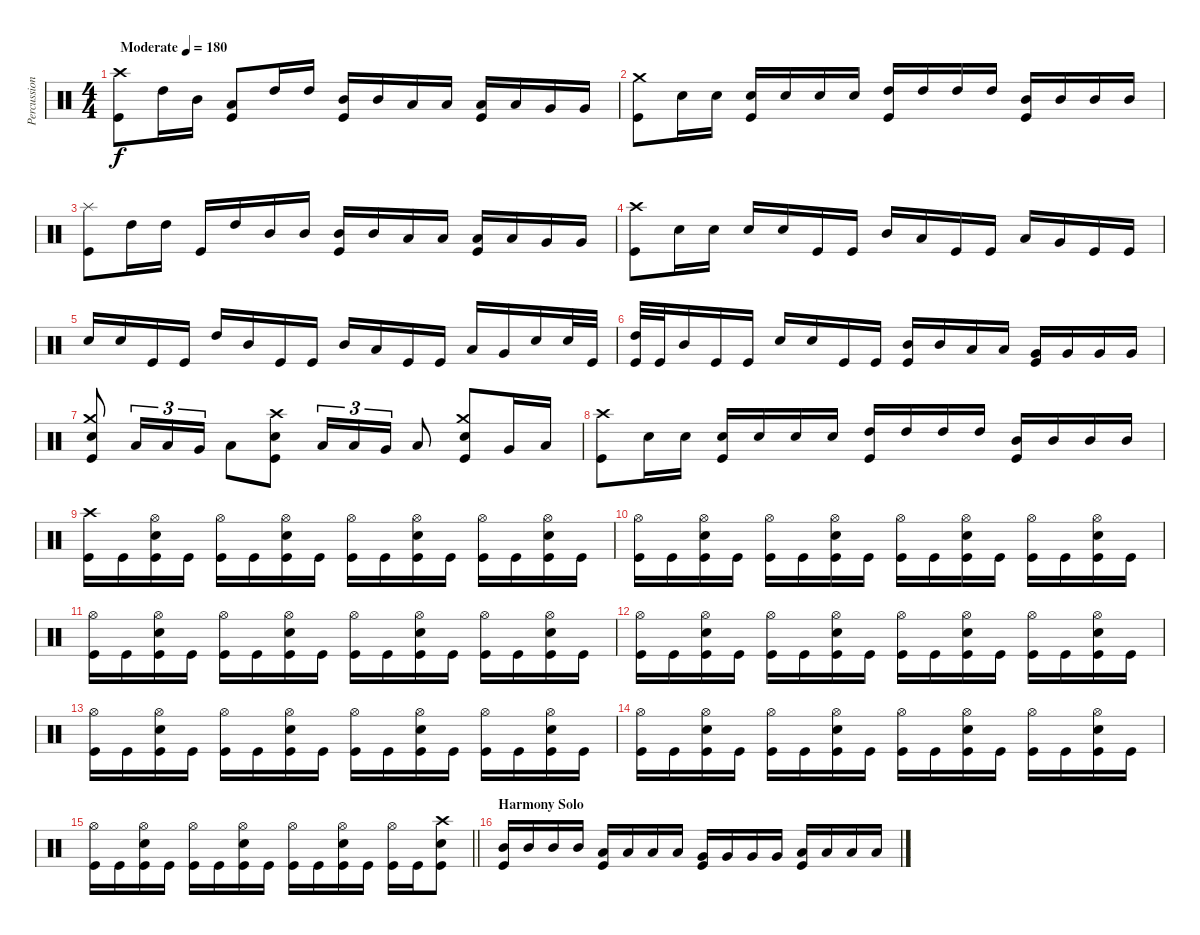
\track ("Percussion" "Percussion") {instrument percussion}
\staff {score}
\articulation defaults
\ts (4 4)
\tempo (180 "Moderate")
\clef neutral
\ks c
("Crash high (hit)" "Kick (hit)").8{dy f} "High Tom (hit)".16 "Mid Tom (hit)".16 ("Low Tom (hit)" "Kick (hit)").8 "High Tom (hit)".16 "High Tom (hit)".16 ("Mid Tom (hit)" "Kick (hit)").16 "Mid Tom (hit)".16 "Low Tom (hit)".16 "Low Tom (hit)".16 ("Low Tom (hit)" "Kick (hit)").16 "Low Tom (hit)".16 "Very Low Tom (hit)".16 "Very Low Tom (hit)".16 |
("Crash medium (hit)" "Kick (hit)").8 "Electric Snare (hit)".16 "Electric Snare (hit)".16 ("Electric Snare (hit)" "Kick (hit)").16 "Electric Snare (hit)".16 "Electric Snare (hit)".16 "Electric Snare (hit)".16 ("High Tom (hit)" "Kick (hit)").16 "High Tom (hit)".16 "High Tom (hit)".16 "High Tom (hit)".16 ("Mid Tom (hit)" "Kick (hit)").16 "Mid Tom (hit)".16 "Mid Tom (hit)".16 "Mid Tom (hit)".16 |
("Splash (hit)" "Kick (hit)").8 "High Tom (hit)".16 "High Tom (hit)".16 "Kick (hit)".16 "High Tom (hit)".16 "Mid Tom (hit)".16 "Mid Tom (hit)".16 ("Mid Tom (hit)" "Kick (hit)").16 "Mid Tom (hit)".16 "Low Tom (hit)".16 "Low Tom (hit)".16 ("Low Tom (hit)" "Kick (hit)").16 "Low Tom (hit)".16 "Very Low Tom (hit)".16 "Very Low Tom (hit)".16 |
("Crash high (hit)" "Kick (hit)").8 "Electric Snare (hit)".16 "Electric Snare (hit)".16 "Electric Snare (hit)".16 "Electric Snare (hit)".16 "Kick (hit)".16 "Kick (hit)".16 "Mid Tom (hit)".16 "Low Tom (hit)".16 "Kick (hit)".16 "Kick (hit)".16 "Low Tom (hit)".16 "Very Low Tom (hit)".16 "Kick (hit)".16 "Kick (hit)".16 |
"Electric Snare (hit)".16 "Electric Snare (hit)".16 "Kick (hit)".16 "Kick (hit)".16 "High Tom (hit)".16 "Mid Tom (hit)".16 "Kick (hit)".16 "Kick (hit)".16 "Mid Tom (hit)".16 "Low Tom (hit)".16 "Kick (hit)".16 "Kick (hit)".16 "Low Tom (hit)".16 "Very Low Tom (hit)".16 "Electric Snare (hit)".16 "Electric Snare (hit)".32 "Kick (hit)".32 |
("High Tom (hit)" "Kick (hit)").32 "Kick (hit)".32 "Mid Tom (hit)".16 "Kick (hit)".16 "Kick (hit)".16 "Electric Snare (hit)".16 "Electric Snare (hit)".16 "Kick (hit)".16 "Kick (hit)".16 ("Mid Tom (hit)" "Kick (hit)").16 "Mid Tom (hit)".16 "Low Tom (hit)".16 "Low Tom (hit)".16 ("Very Low Tom (hit)" "Kick (hit)").16 "Very Low Tom (hit)".16 "Very Low Tom (hit)".16 "Very Low Tom (hit)".16 |
("Crash medium (hit)" "Electric Snare (hit)" "Kick (hit)").8 "Low Tom (hit)".16{tu (3 2)} "Low Tom (hit)".16{tu (3 2)} "Very Low Tom (hit)".16{tu (3 2)} "Low Floor Tom (hit)".8 ("Crash high (hit)" "Electric Snare (hit)" "Kick (hit)").8 "Low Tom (hit)".16{tu (3 2)} "Low Tom (hit)".16{tu (3 2)} "Very Low Tom (hit)".16{tu (3 2)} "Low Floor Tom (hit)".8 ("Crash medium (hit)" "Electric Snare (hit)" "Kick (hit)").8 "Very Low Tom (hit)".16 "Low Floor Tom (hit)".16 |
("Crash high (hit)" "Kick (hit)").8 "Electric Snare (hit)".16 "Electric Snare (hit)".16 ("Electric Snare (hit)" "Kick (hit)").16 "Electric Snare (hit)".16 "Electric Snare (hit)".16 "Electric Snare (hit)".16 ("High Tom (hit)" "Kick (hit)").16 "High Tom (hit)".16 "High Tom (hit)".16 "High Tom (hit)".16 ("Mid Tom (hit)" "Kick (hit)").16 "Mid Tom (hit)".16 "Mid Tom (hit)".16 "Mid Tom (hit)".16 |
("Crash high (hit)" "Kick (hit)").16 "Kick (hit)".16 ("Hi-Hat (open)" "Electric Snare (hit)" "Kick (hit)").16 "Kick (hit)".16 ("Hi-Hat (open)" "Kick (hit)").16 "Kick (hit)".16 ("Hi-Hat (open)" "Electric Snare (hit)" "Kick (hit)").16 "Kick (hit)".16 ("Hi-Hat (open)" "Kick (hit)").16 "Kick (hit)".16 ("Hi-Hat (open)" "Electric Snare (hit)" "Kick (hit)").16 "Kick (hit)".16 ("Hi-Hat (open)" "Kick (hit)").16 "Kick (hit)".16 ("Hi-Hat (open)" "Electric Snare (hit)" "Kick (hit)").16 "Kick (hit)".16 |
("Hi-Hat (open)" "Kick (hit)").16 "Kick (hit)".16 ("Hi-Hat (open)" "Electric Snare (hit)" "Kick (hit)").16 "Kick (hit)".16 ("Hi-Hat (open)" "Kick (hit)").16 "Kick (hit)".16 ("Hi-Hat (open)" "Electric Snare (hit)" "Kick (hit)").16 "Kick (hit)".16 ("Hi-Hat (open)" "Kick (hit)").16 "Kick (hit)".16 ("Hi-Hat (open)" "Electric Snare (hit)" "Kick (hit)").16 "Kick (hit)".16 ("Hi-Hat (open)" "Kick (hit)").16 "Kick (hit)".16 ("Hi-Hat (open)" "Electric Snare (hit)" "Kick (hit)").16 "Kick (hit)".16 |
("Hi-Hat (open)" "Kick (hit)").16 "Kick (hit)".16 ("Hi-Hat (open)" "Electric Snare (hit)" "Kick (hit)").16 "Kick (hit)".16 ("Hi-Hat (open)" "Kick (hit)").16 "Kick (hit)".16 ("Hi-Hat (open)" "Electric Snare (hit)" "Kick (hit)").16 "Kick (hit)".16 ("Hi-Hat (open)" "Kick (hit)").16 "Kick (hit)".16 ("Hi-Hat (open)" "Electric Snare (hit)" "Kick (hit)").16 "Kick (hit)".16 ("Hi-Hat (open)" "Kick (hit)").16 "Kick (hit)".16 ("Hi-Hat (open)" "Electric Snare (hit)" "Kick (hit)").16 "Kick (hit)".16 |
("Hi-Hat (open)" "Kick (hit)").16 "Kick (hit)".16 ("Hi-Hat (open)" "Electric Snare (hit)" "Kick (hit)").16 "Kick (hit)".16 ("Hi-Hat (open)" "Kick (hit)").16 "Kick (hit)".16 ("Hi-Hat (open)" "Electric Snare (hit)" "Kick (hit)").16 "Kick (hit)".16 ("Hi-Hat (open)" "Kick (hit)").16 "Kick (hit)".16 ("Hi-Hat (open)" "Electric Snare (hit)" "Kick (hit)").16 "Kick (hit)".16 ("Hi-Hat (open)" "Kick (hit)").16 "Kick (hit)".16 ("Hi-Hat (open)" "Electric Snare (hit)" "Kick (hit)").16 "Kick (hit)".16 |
("Hi-Hat (open)" "Kick (hit)").16 "Kick (hit)".16 ("Hi-Hat (open)" "Electric Snare (hit)" "Kick (hit)").16 "Kick (hit)".16 ("Hi-Hat (open)" "Kick (hit)").16 "Kick (hit)".16 ("Hi-Hat (open)" "Electric Snare (hit)" "Kick (hit)").16 "Kick (hit)".16 ("Hi-Hat (open)" "Kick (hit)").16 "Kick (hit)".16 ("Hi-Hat (open)" "Electric Snare (hit)" "Kick (hit)").16 "Kick (hit)".16 ("Hi-Hat (open)" "Kick (hit)").16 "Kick (hit)".16 ("Hi-Hat (open)" "Electric Snare (hit)" "Kick (hit)").16 "Kick (hit)".16 |
("Hi-Hat (open)" "Kick (hit)").16 "Kick (hit)".16 ("Hi-Hat (open)" "Electric Snare (hit)" "Kick (hit)").16 "Kick (hit)".16 ("Hi-Hat (open)" "Kick (hit)").16 "Kick (hit)".16 ("Hi-Hat (open)" "Electric Snare (hit)" "Kick (hit)").16 "Kick (hit)".16 ("Hi-Hat (open)" "Kick (hit)").16 "Kick (hit)".16 ("Hi-Hat (open)" "Electric Snare (hit)" "Kick (hit)").16 "Kick (hit)".16 ("Hi-Hat (open)" "Kick (hit)").16 "Kick (hit)".16 ("Hi-Hat (open)" "Electric Snare (hit)" "Kick (hit)").16 "Kick (hit)".16 |
\barLineRight lightlight
("Hi-Hat (open)" "Kick (hit)").16 "Kick (hit)".16 ("Hi-Hat (open)" "Electric Snare (hit)" "Kick (hit)").16 "Kick (hit)".16 ("Hi-Hat (open)" "Kick (hit)").16 "Kick (hit)".16 ("Hi-Hat (open)" "Electric Snare (hit)" "Kick (hit)").16 "Kick (hit)".16 ("Hi-Hat (open)" "Kick (hit)").16 "Kick (hit)".16 ("Hi-Hat (open)" "Electric Snare (hit)" "Kick (hit)").16 "Kick (hit)".16 ("Hi-Hat (open)" "Kick (hit)").16 "Kick (hit)".16 ("Crash high (hit)" "Electric Snare (hit)" "Kick (hit)").8 |
\section ("" "Harmony Solo")
("Mid Tom (hit)" "Kick (hit)").16 "Mid Tom (hit)".16 "Mid Tom (hit)".16 "Mid Tom (hit)".16 ("Low Tom (hit)" "Kick (hit)").16 "Low Tom (hit)".16 "Low Tom (hit)".16 "Low Tom (hit)".16 ("Very Low Tom (hit)" "Kick (hit)").16 "Very Low Tom (hit)".16 "Very Low Tom (hit)".16 "Very Low Tom (hit)".16 ("Low Floor Tom (hit)" "Kick (hit)").16 "Low Floor Tom (hit)".16 "Low Floor Tom (hit)".16 "Low Floor Tom (hit)".16
